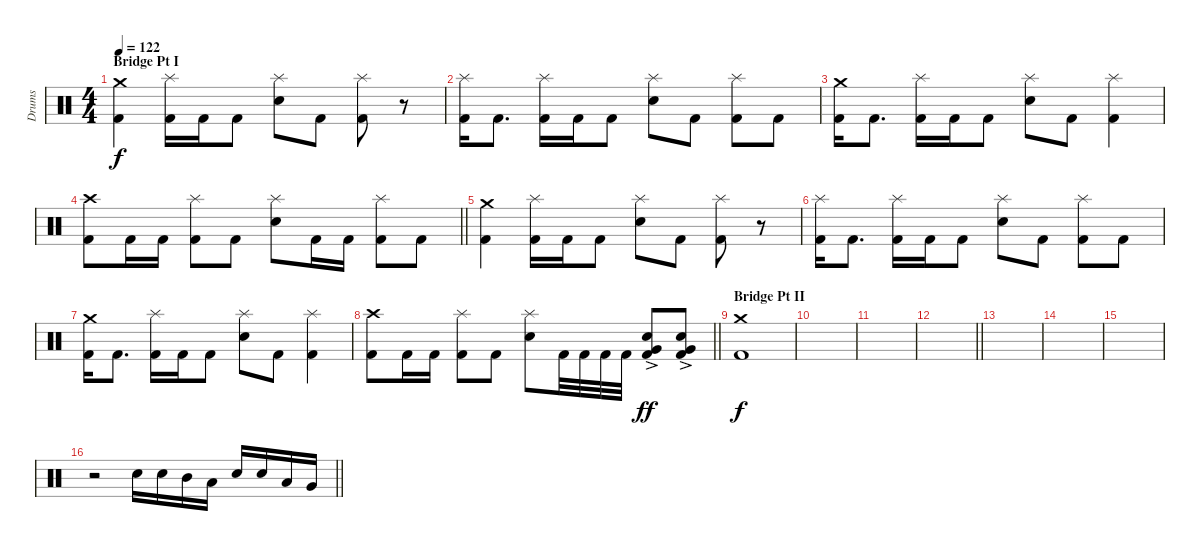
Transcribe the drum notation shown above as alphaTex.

\track ("Drums" "Drums") {instrument percussion}
\staff {score}
\articulation defaults
\ts (4 4)
\section ("" "Bridge Pt I")
\tempo 122
\clef neutral
\ks c
("Kick (hit) 2" "Crash medium (hit)").4{dy f} ("Kick (hit) 2" "Splash (hit)").16 "Kick (hit) 2".16 "Kick (hit) 2".8 ("Snare (hit) 2" "Splash (hit)").8 "Kick (hit) 2".8 ("Kick (hit) 2" "Splash (hit)").8 r.8 |
("Kick (hit) 2" "Splash (hit)").16 "Kick (hit) 2".8{d} ("Kick (hit) 2" "Splash (hit)").16 "Kick (hit) 2".16 "Kick (hit) 2".8 ("Snare (hit) 2" "Splash (hit)").8 "Kick (hit) 2".8 ("Kick (hit) 2" "Splash (hit)").8 "Kick (hit) 2".8 |
("Kick (hit) 2" "Crash medium (hit)").16 "Kick (hit) 2".8{d} ("Kick (hit) 2" "Splash (hit)").16 "Kick (hit) 2".16 "Kick (hit) 2".8 ("Snare (hit) 2" "Splash (hit)").8 "Kick (hit) 2".8 ("Kick (hit) 2" "Splash (hit)").4 |
\barLineRight lightlight
("Kick (hit) 2" "Crash high (hit)").8 "Kick (hit) 2".16 "Kick (hit) 2".16 ("Kick (hit) 2" "Splash (hit)").8 "Kick (hit) 2".8 ("Snare (hit) 2" "Splash (hit)").8 "Kick (hit) 2".16 "Kick (hit) 2".16 ("Kick (hit) 2" "Splash (hit)").8 "Kick (hit) 2".8 |
\section ("" "")
("Kick (hit) 2" "Crash medium (hit)").4 ("Kick (hit) 2" "Splash (hit)").16 "Kick (hit) 2".16 "Kick (hit) 2".8 ("Snare (hit) 2" "Splash (hit)").8 "Kick (hit) 2".8 ("Kick (hit) 2" "Splash (hit)").8 r.8 |
("Kick (hit) 2" "Splash (hit)").16 "Kick (hit) 2".8{d} ("Kick (hit) 2" "Splash (hit)").16 "Kick (hit) 2".16 "Kick (hit) 2".8 ("Snare (hit) 2" "Splash (hit)").8 "Kick (hit) 2".8 ("Kick (hit) 2" "Splash (hit)").8 "Kick (hit) 2".8 |
("Kick (hit) 2" "Crash medium (hit)").16 "Kick (hit) 2".8{d} ("Kick (hit) 2" "Splash (hit)").16 "Kick (hit) 2".16 "Kick (hit) 2".8 ("Snare (hit) 2" "Splash (hit)").8 "Kick (hit) 2".8 ("Kick (hit) 2" "Splash (hit)").4 |
\barLineRight lightlight
("Kick (hit) 2" "Crash high (hit)").8 "Kick (hit) 2".16 "Kick (hit) 2".16 ("Kick (hit) 2" "Splash (hit)").8 "Kick (hit) 2".8 ("Snare (hit) 2" "Splash (hit)").8 "Kick (hit) 2".32 "Kick (hit) 2".32 "Kick (hit) 2".32 "Kick (hit) 2".32 ("Kick (hit) 2" "Snare (hit) 2" "Very Low Tom (hit)"{ac}).8{dy ff} ("Kick (hit) 2" "Snare (hit) 2" "Very Low Tom (hit)"{ac}).8 |
\section ("" "Bridge Pt II")
("Kick (hit) 2" "Crash medium (hit)").1{dy f} |
|
|
\barLineRight lightlight
|
\section ("" "")
|
|
|
\barLineRight lightlight
r.2 "Snare (hit) 2".16 "Snare (hit) 2".16 "Mid Tom (hit)".16 "Low Tom (hit)".16 "Snare (hit) 2".16 "Snare (hit) 2".16 "Low Tom (hit)".16 "Very Low Tom (hit)".16
